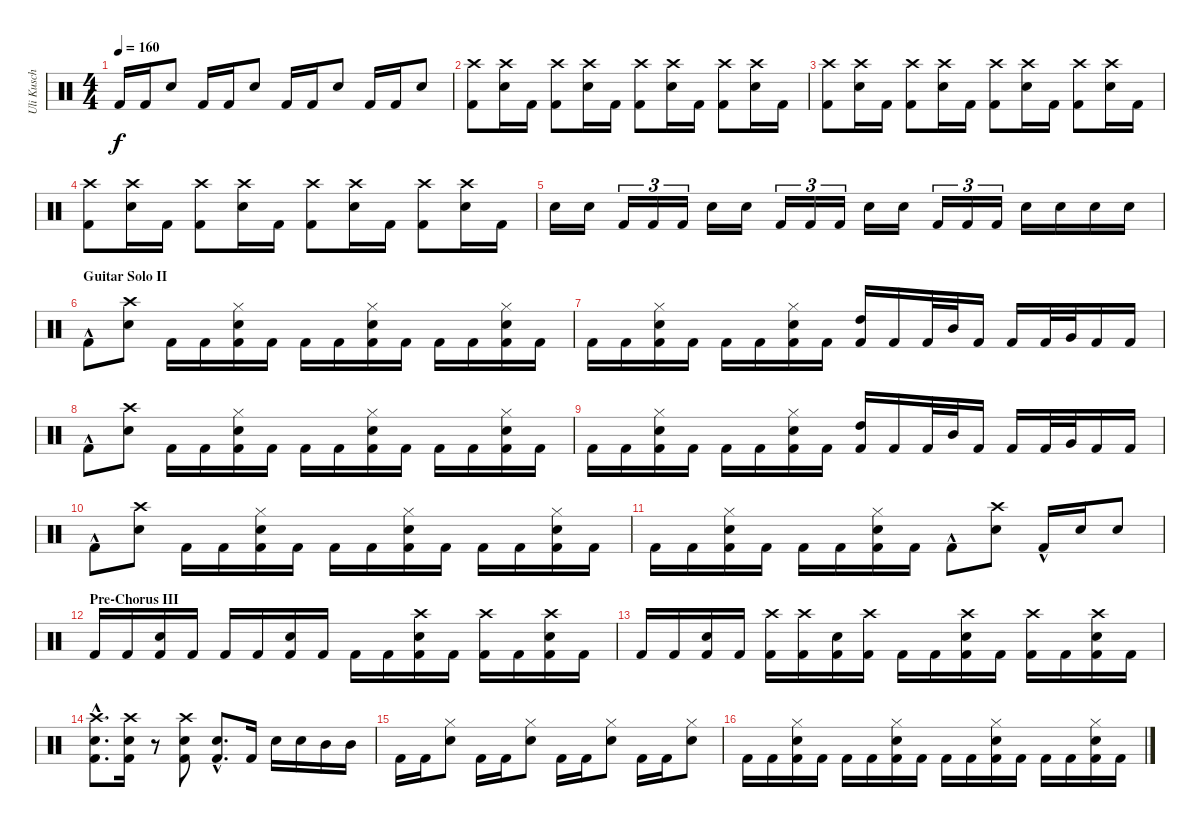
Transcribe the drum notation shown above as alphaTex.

\track ("Uli Kusch" "Uli Kusch") {instrument percussion}
\staff {score}
\articulation defaults
\ts (4 4)
\tempo 160
\clef neutral
\ks c "Kick (hit) 2".16{dy f} "Kick (hit) 2".16 "Snare (hit) 2".8 "Kick (hit) 2".16 "Kick (hit) 2".16 "Snare (hit) 2".8 "Kick (hit) 2".16 "Kick (hit) 2".16 "Snare (hit) 2".8 "Kick (hit) 2".16 "Kick (hit) 2".16 "Snare (hit) 2".8
|
("Kick (hit) 2" "Crash high (hit)").8 ("Crash high (hit)" "Snare (hit) 2").16 "Kick (hit) 2".16 ("Kick (hit) 2" "Crash high (hit)").8 ("Crash high (hit)" "Snare (hit) 2").16 "Kick (hit) 2".16 ("Kick (hit) 2" "Crash high (hit)").8 ("Crash high (hit)" "Snare (hit) 2").16 "Kick (hit) 2".16 ("Kick (hit) 2" "Crash high (hit)").8 ("Crash high (hit)" "Snare (hit) 2").16 "Kick (hit) 2".16 |
("Kick (hit) 2" "Crash high (hit)").8 ("Crash high (hit)" "Snare (hit) 2").16 "Kick (hit) 2".16 ("Kick (hit) 2" "Crash high (hit)").8 ("Crash high (hit)" "Snare (hit) 2").16 "Kick (hit) 2".16 ("Kick (hit) 2" "Crash high (hit)").8 ("Crash high (hit)" "Snare (hit) 2").16 "Kick (hit) 2".16 ("Kick (hit) 2" "Crash high (hit)").8 ("Crash high (hit)" "Snare (hit) 2").16 "Kick (hit) 2".16 |
("Kick (hit) 2" "Crash high (hit)").8 ("Crash high (hit)" "Snare (hit) 2").16 "Kick (hit) 2".16 ("Kick (hit) 2" "Crash high (hit)").8 ("Crash high (hit)" "Snare (hit) 2").16 "Kick (hit) 2".16 ("Kick (hit) 2" "Crash high (hit)").8 ("Crash high (hit)" "Snare (hit) 2").16 "Kick (hit) 2".16 ("Kick (hit) 2" "Crash high (hit)").8 ("Crash high (hit)" "Snare (hit) 2").16 "Kick (hit) 2".16 |
"Snare (hit) 2".16 "Snare (hit) 2".16 "Kick (hit) 2".16{tu (3 2)} "Kick (hit) 2".16{tu (3 2)} "Kick (hit) 2".16{tu (3 2)} "Snare (hit) 2".16 "Snare (hit) 2".16 "Kick (hit) 2".16{tu (3 2)} "Kick (hit) 2".16{tu (3 2)} "Kick (hit) 2".16{tu (3 2)} "Snare (hit) 2".16 "Snare (hit) 2".16 "Kick (hit) 2".16{tu (3 2)} "Kick (hit) 2".16{tu (3 2)} "Kick (hit) 2".16{tu (3 2)} "Snare (hit) 2".16 "Snare (hit) 2".16 "Snare (hit) 2".16 "Snare (hit) 2".16 |
\section ("" "Guitar Solo II")
"Kick (hit) 2"{hac}.8 ("Snare (hit) 2" "Crash high (hit)").8 "Kick (hit) 2".16 "Kick (hit) 2".16 ("Kick (hit) 2" "Hi-Hat (closed)" "Snare (hit) 2").16 "Kick (hit) 2".16 "Kick (hit) 2".16 "Kick (hit) 2".16 ("Kick (hit) 2" "Hi-Hat (closed)" "Snare (hit) 2").16 "Kick (hit) 2".16 "Kick (hit) 2".16 "Kick (hit) 2".16 ("Kick (hit) 2" "Hi-Hat (closed)" "Snare (hit) 2").16 "Kick (hit) 2".16 |
"Kick (hit) 2".16 "Kick (hit) 2".16 ("Kick (hit) 2" "Snare (hit) 2" "Hi-Hat (closed)").16 "Kick (hit) 2".16 "Kick (hit) 2".16 "Kick (hit) 2".16 ("Kick (hit) 2" "Hi-Hat (closed)" "Snare (hit) 2").16 "Kick (hit) 2".16 ("Kick (hit) 2" "High Tom (hit)").16 "Kick (hit) 2".16 "Kick (hit) 2".32 "Mid Tom (hit)".32 "Kick (hit) 2".16 "Kick (hit) 2".16 "Kick (hit) 2".32 "Very Low Tom (hit)".32 "Kick (hit) 2".16 "Kick (hit) 2".16 |
"Kick (hit) 2"{hac}.8 ("Snare (hit) 2" "Crash high (hit)").8 "Kick (hit) 2".16 "Kick (hit) 2".16 ("Kick (hit) 2" "Hi-Hat (closed)" "Snare (hit) 2").16 "Kick (hit) 2".16 "Kick (hit) 2".16 "Kick (hit) 2".16 ("Kick (hit) 2" "Hi-Hat (closed)" "Snare (hit) 2").16 "Kick (hit) 2".16 "Kick (hit) 2".16 "Kick (hit) 2".16 ("Kick (hit) 2" "Hi-Hat (closed)" "Snare (hit) 2").16 "Kick (hit) 2".16 |
"Kick (hit) 2".16 "Kick (hit) 2".16 ("Kick (hit) 2" "Snare (hit) 2" "Hi-Hat (closed)").16 "Kick (hit) 2".16 "Kick (hit) 2".16 "Kick (hit) 2".16 ("Kick (hit) 2" "Hi-Hat (closed)" "Snare (hit) 2").16 "Kick (hit) 2".16 ("Kick (hit) 2" "High Tom (hit)").16 "Kick (hit) 2".16 "Kick (hit) 2".32 "Mid Tom (hit)".32 "Kick (hit) 2".16 "Kick (hit) 2".16 "Kick (hit) 2".32 "Very Low Tom (hit)".32 "Kick (hit) 2".16 "Kick (hit) 2".16 |
"Kick (hit) 2"{hac}.8 ("Snare (hit) 2" "Crash high (hit)").8 "Kick (hit) 2".16 "Kick (hit) 2".16 ("Kick (hit) 2" "Hi-Hat (closed)" "Snare (hit) 2").16 "Kick (hit) 2".16 "Kick (hit) 2".16 "Kick (hit) 2".16 ("Kick (hit) 2" "Hi-Hat (closed)" "Snare (hit) 2").16 "Kick (hit) 2".16 "Kick (hit) 2".16 "Kick (hit) 2".16 ("Kick (hit) 2" "Hi-Hat (closed)" "Snare (hit) 2").16 "Kick (hit) 2".16 |
"Kick (hit) 2".16 "Kick (hit) 2".16 ("Kick (hit) 2" "Snare (hit) 2" "Hi-Hat (closed)").16 "Kick (hit) 2".16 "Kick (hit) 2".16 "Kick (hit) 2".16 ("Kick (hit) 2" "Hi-Hat (closed)" "Snare (hit) 2").16 "Kick (hit) 2".16 "Kick (hit) 2"{hac}.8 ("Snare (hit) 2" "Crash high (hit)").8 "Kick (hit) 2"{hac}.16 "Snare (hit) 2".16 "Snare (hit) 2".8 |
\section ("" "Pre-Chorus III")
"Kick (hit) 2".16 "Kick (hit) 2".16 ("Kick (hit) 2" "Snare (hit) 2").16 "Kick (hit) 2".16 "Kick (hit) 2".16 "Kick (hit) 2".16 ("Kick (hit) 2" "Snare (hit) 2").16 "Kick (hit) 2".16 "Kick (hit) 2".16 "Kick (hit) 2".16 ("Kick (hit) 2" "Snare (hit) 2" "Crash high (hit)").16 "Kick (hit) 2".16 ("Kick (hit) 2" "Crash high (hit)").16 "Kick (hit) 2".16 ("Kick (hit) 2" "Crash high (hit)" "Snare (hit) 2").16 "Kick (hit) 2".16 |
"Kick (hit) 2".16 "Kick (hit) 2".16 ("Kick (hit) 2" "Snare (hit) 2").16 "Kick (hit) 2".16 ("Kick (hit) 2" "Crash high (hit)").16 ("Kick (hit) 2" "Crash high (hit)").16 ("Kick (hit) 2" "Snare (hit) 2").16 ("Kick (hit) 2" "Crash high (hit)").16 "Kick (hit) 2".16 "Kick (hit) 2".16 ("Kick (hit) 2" "Snare (hit) 2" "Crash high (hit)").16 "Kick (hit) 2".16 ("Kick (hit) 2" "Crash high (hit)").16 "Kick (hit) 2".16 ("Kick (hit) 2" "Crash high (hit)" "Snare (hit) 2").16 "Kick (hit) 2".16 |
("Kick (hit) 2"{hac} "Snare (hit) 2"{hac} "Crash high (hit)"{hac}).8{d} ("Kick (hit) 2" "Snare (hit) 2" "Crash high (hit)").16 r.8 ("Kick (hit) 2" "Snare (hit) 2" "Crash high (hit)").8 ("Snare (hit) 2"{hac} "Kick (hit) 2").8{d} "Kick (hit) 2".16 "Snare (hit) 2".16 "Snare (hit) 2".16 "Mid Tom (hit)".16 "Mid Tom (hit)".16 |
"Kick (hit) 2".16 "Kick (hit) 2".16 ("Snare (hit) 2" "Hi-Hat (closed)").8 "Kick (hit) 2".16 "Kick (hit) 2".16 ("Hi-Hat (closed)" "Snare (hit) 2").8 "Kick (hit) 2".16 "Kick (hit) 2".16 ("Snare (hit) 2" "Hi-Hat (closed)").8 "Kick (hit) 2".16 "Kick (hit) 2".16 ("Hi-Hat (closed)" "Snare (hit) 2").8 |
"Kick (hit) 2".16 "Kick (hit) 2".16 ("Kick (hit) 2" "Snare (hit) 2" "Hi-Hat (closed)").16 "Kick (hit) 2".16 "Kick (hit) 2".16 "Kick (hit) 2".16 ("Kick (hit) 2" "Hi-Hat (closed)" "Snare (hit) 2").16 "Kick (hit) 2".16 "Kick (hit) 2".16 "Kick (hit) 2".16 ("Kick (hit) 2" "Snare (hit) 2" "Hi-Hat (closed)").16 "Kick (hit) 2".16 "Kick (hit) 2".16 "Kick (hit) 2".16 ("Kick (hit) 2" "Hi-Hat (closed)" "Snare (hit) 2").16 "Kick (hit) 2".16
